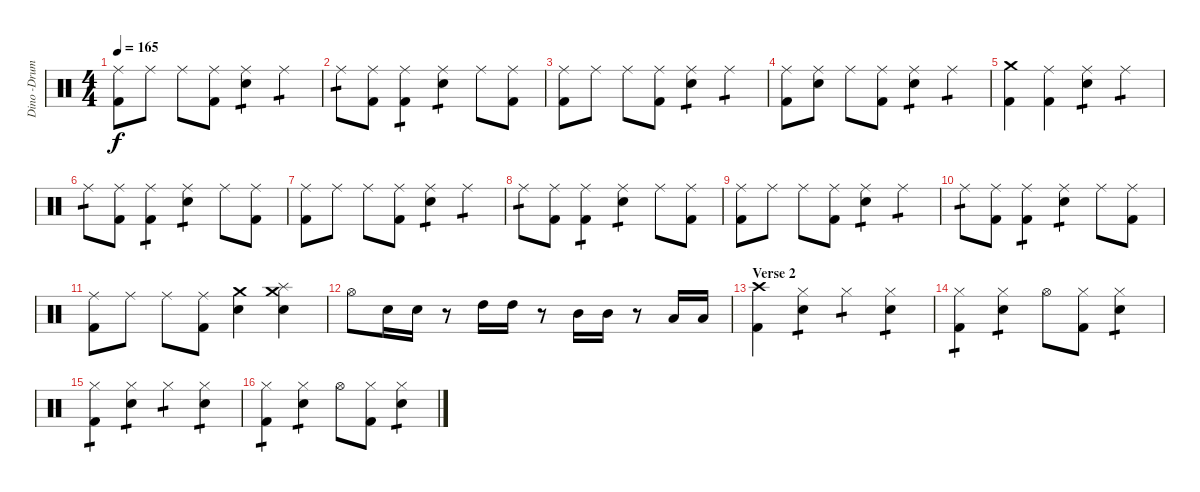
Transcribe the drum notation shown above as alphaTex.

\track ("Dino -Drums" "Dino -Drum") {instrument percussion}
\staff {score}
\articulation defaults
\ts (4 4)
\tempo 165
\clef neutral
\ks c
("Ride (middle)" "Kick (hit) 2").8{dy f} "Ride (middle)".8 "Ride (middle)".8 ("Ride (middle)" "Kick (hit) 2").8 ("Ride (middle)" "Electric Snare (hit)").4{tp 1} "Ride (middle)".4{tp 1} |
"Ride (middle)".8{tp 1} ("Ride (middle)" "Kick (hit) 2").8 ("Ride (middle)" "Kick (hit) 2").4{tp 1} ("Ride (middle)" "Electric Snare (hit)").4{tp 1} "Ride (middle)".8 ("Ride (middle)" "Kick (hit) 2").8 |
("Ride (middle)" "Kick (hit) 2").8 "Ride (middle)".8 "Ride (middle)".8 ("Ride (middle)" "Kick (hit) 2").8 ("Ride (middle)" "Electric Snare (hit)").4{tp 1} "Ride (middle)".4{tp 1} |
("Ride (middle)" "Kick (hit) 2").8 ("Ride (middle)" "Electric Snare (hit)").8 "Ride (middle)".8 ("Ride (middle)" "Kick (hit) 2").8 ("Ride (middle)" "Electric Snare (hit)").4{tp 1} "Ride (middle)".4{tp 1} |
("Crash medium (hit)" "Kick (hit) 2").4 ("Ride (middle)" "Kick (hit) 2").4 ("Ride (middle)" "Electric Snare (hit)").4{tp 1} "Ride (middle)".4{tp 1} |
"Ride (middle)".8{tp 1} ("Ride (middle)" "Kick (hit) 2").8 ("Ride (middle)" "Kick (hit) 2").4{tp 1} ("Ride (middle)" "Electric Snare (hit)").4{tp 1} "Ride (middle)".8 ("Ride (middle)" "Kick (hit) 2").8 |
("Ride (middle)" "Kick (hit) 2").8 "Ride (middle)".8 "Ride (middle)".8 ("Ride (middle)" "Kick (hit) 2").8 ("Ride (middle)" "Electric Snare (hit)").4{tp 1} "Ride (middle)".4{tp 1} |
"Ride (middle)".8{tp 1} ("Ride (middle)" "Kick (hit) 2").8 ("Ride (middle)" "Kick (hit) 2").4{tp 1} ("Ride (middle)" "Electric Snare (hit)").4{tp 1} "Ride (middle)".8 ("Ride (middle)" "Kick (hit) 2").8 |
("Ride (middle)" "Kick (hit) 2").8 "Ride (middle)".8 "Ride (middle)".8 ("Ride (middle)" "Kick (hit) 2").8 ("Ride (middle)" "Electric Snare (hit)").4{tp 1} "Ride (middle)".4{tp 1} |
"Ride (middle)".8{tp 1} ("Ride (middle)" "Kick (hit) 2").8 ("Ride (middle)" "Kick (hit) 2").4{tp 1} ("Ride (middle)" "Electric Snare (hit)").4{tp 1} "Ride (middle)".8 ("Ride (middle)" "Kick (hit) 2").8 |
("Ride (middle)" "Kick (hit) 2").8 "Ride (middle)".8 "Ride (middle)".8 ("Ride (middle)" "Kick (hit) 2").8 ("Crash medium (hit)" "Electric Snare (hit)").4 ("Crash medium (hit)" "Splash (hit)" "Electric Snare (hit)").4 |
"Hi-Hat (open)".8 "Electric Snare (hit)".16 "Electric Snare (hit)".16 r.8 "High Tom (hit)".16 "High Tom (hit)".16 r.8 "Mid Tom (hit)".16 "Mid Tom (hit)".16 r.8 "Low Tom (hit)".16 "Low Tom (hit)".16 |
\section ("" "Verse 2")
("Crash high (hit)" "Kick (hit) 2").4 ("Hi-Hat (closed)" "Electric Snare (hit)").4{tp 1} "Hi-Hat (closed)".4{tp 1} ("Hi-Hat (closed)" "Electric Snare (hit)").4{tp 1} |
("Hi-Hat (closed)" "Kick (hit) 2").4{tp 1} ("Hi-Hat (closed)" "Electric Snare (hit)").4{tp 1} "Hi-Hat (open)".8 ("Hi-Hat (closed)" "Kick (hit) 2").8 ("Hi-Hat (closed)" "Electric Snare (hit)").4{tp 1} |
("Hi-Hat (closed)" "Kick (hit) 2").4{tp 1} ("Hi-Hat (closed)" "Electric Snare (hit)").4{tp 1} "Hi-Hat (closed)".4{tp 1} ("Hi-Hat (closed)" "Electric Snare (hit)").4{tp 1} |
("Hi-Hat (closed)" "Kick (hit) 2").4{tp 1} ("Hi-Hat (closed)" "Electric Snare (hit)").4{tp 1} "Hi-Hat (open)".8 ("Hi-Hat (closed)" "Kick (hit) 2").8 ("Hi-Hat (closed)" "Electric Snare (hit)").4{tp 1}
